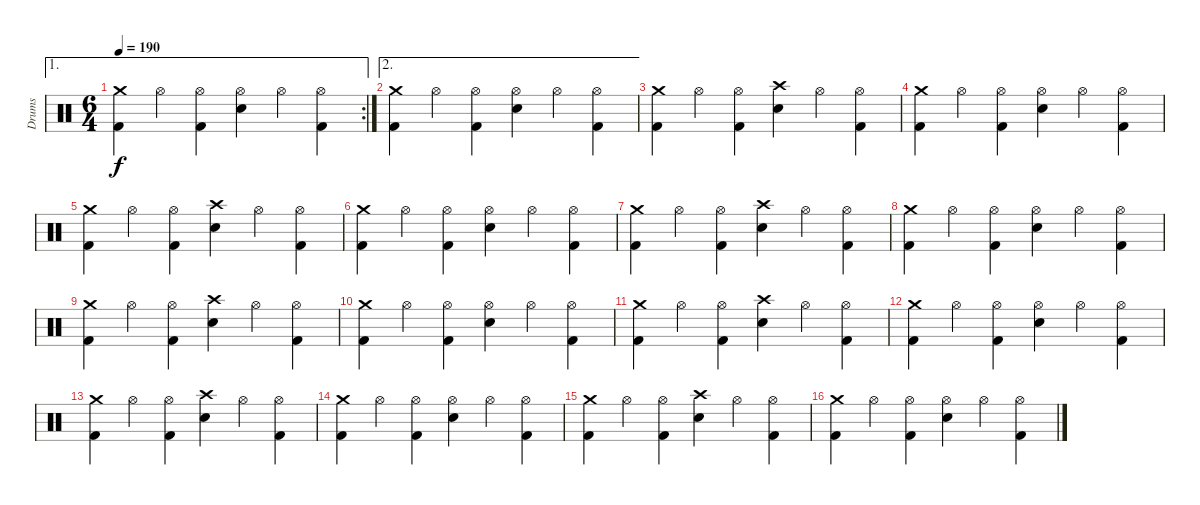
\track ("Drums" "Drums") {instrument percussion}
\staff {score}
\articulation defaults
\ae 1
\rc 2
\ts (6 4)
\tempo 190
\clef neutral
\ks c
("Crash medium (hit)" "Kick (hit) 2").4{dy f} "Hi-Hat (open)".4 ("Hi-Hat (open)" "Kick (hit) 2").4 ("Hi-Hat (open)" "Electric Snare (hit)").4 "Hi-Hat (open)".4 ("Hi-Hat (open)" "Kick (hit) 2").4 |
\ae 2
("Crash medium (hit)" "Kick (hit) 2").4 "Hi-Hat (open)".4 ("Hi-Hat (open)" "Kick (hit) 2").4 ("Hi-Hat (open)" "Electric Snare (hit)").4 "Hi-Hat (open)".4 ("Hi-Hat (open)" "Kick (hit) 2").4 |
("Crash medium (hit)" "Kick (hit) 2").4 "Hi-Hat (open)".4 ("Hi-Hat (open)" "Kick (hit) 2").4 ("Crash high (hit)" "Electric Snare (hit)").4 "Hi-Hat (open)".4 ("Hi-Hat (open)" "Kick (hit) 2").4 |
("Crash medium (hit)" "Kick (hit) 2").4 "Hi-Hat (open)".4 ("Hi-Hat (open)" "Kick (hit) 2").4 ("Hi-Hat (open)" "Electric Snare (hit)").4 "Hi-Hat (open)".4 ("Hi-Hat (open)" "Kick (hit) 2").4 |
("Crash medium (hit)" "Kick (hit) 2").4 "Hi-Hat (open)".4 ("Hi-Hat (open)" "Kick (hit) 2").4 ("Crash high (hit)" "Electric Snare (hit)").4 "Hi-Hat (open)".4 ("Hi-Hat (open)" "Kick (hit) 2").4 |
("Crash medium (hit)" "Kick (hit) 2").4 "Hi-Hat (open)".4 ("Hi-Hat (open)" "Kick (hit) 2").4 ("Hi-Hat (open)" "Electric Snare (hit)").4 "Hi-Hat (open)".4 ("Hi-Hat (open)" "Kick (hit) 2").4 |
("Crash medium (hit)" "Kick (hit) 2").4 "Hi-Hat (open)".4 ("Hi-Hat (open)" "Kick (hit) 2").4 ("Crash high (hit)" "Electric Snare (hit)").4 "Hi-Hat (open)".4 ("Hi-Hat (open)" "Kick (hit) 2").4 |
("Crash medium (hit)" "Kick (hit) 2").4 "Hi-Hat (open)".4 ("Hi-Hat (open)" "Kick (hit) 2").4 ("Hi-Hat (open)" "Electric Snare (hit)").4 "Hi-Hat (open)".4 ("Hi-Hat (open)" "Kick (hit) 2").4 |
("Crash medium (hit)" "Kick (hit) 2").4 "Hi-Hat (open)".4 ("Hi-Hat (open)" "Kick (hit) 2").4 ("Crash high (hit)" "Electric Snare (hit)").4 "Hi-Hat (open)".4 ("Hi-Hat (open)" "Kick (hit) 2").4 |
("Crash medium (hit)" "Kick (hit) 2").4 "Hi-Hat (open)".4 ("Hi-Hat (open)" "Kick (hit) 2").4 ("Hi-Hat (open)" "Electric Snare (hit)").4 "Hi-Hat (open)".4 ("Hi-Hat (open)" "Kick (hit) 2").4 |
("Crash medium (hit)" "Kick (hit) 2").4 "Hi-Hat (open)".4 ("Hi-Hat (open)" "Kick (hit) 2").4 ("Crash high (hit)" "Electric Snare (hit)").4 "Hi-Hat (open)".4 ("Hi-Hat (open)" "Kick (hit) 2").4 |
("Crash medium (hit)" "Kick (hit) 2").4 "Hi-Hat (open)".4 ("Hi-Hat (open)" "Kick (hit) 2").4 ("Hi-Hat (open)" "Electric Snare (hit)").4 "Hi-Hat (open)".4 ("Hi-Hat (open)" "Kick (hit) 2").4 |
("Crash medium (hit)" "Kick (hit) 2").4 "Hi-Hat (open)".4 ("Hi-Hat (open)" "Kick (hit) 2").4 ("Crash high (hit)" "Electric Snare (hit)").4 "Hi-Hat (open)".4 ("Hi-Hat (open)" "Kick (hit) 2").4 |
("Crash medium (hit)" "Kick (hit) 2").4 "Hi-Hat (open)".4 ("Hi-Hat (open)" "Kick (hit) 2").4 ("Hi-Hat (open)" "Electric Snare (hit)").4 "Hi-Hat (open)".4 ("Hi-Hat (open)" "Kick (hit) 2").4 |
("Crash medium (hit)" "Kick (hit) 2").4 "Hi-Hat (open)".4 ("Hi-Hat (open)" "Kick (hit) 2").4 ("Crash high (hit)" "Electric Snare (hit)").4 "Hi-Hat (open)".4 ("Hi-Hat (open)" "Kick (hit) 2").4 |
("Crash medium (hit)" "Kick (hit) 2").4 "Hi-Hat (open)".4 ("Hi-Hat (open)" "Kick (hit) 2").4 ("Hi-Hat (open)" "Electric Snare (hit)").4 "Hi-Hat (open)".4 ("Hi-Hat (open)" "Kick (hit) 2").4
